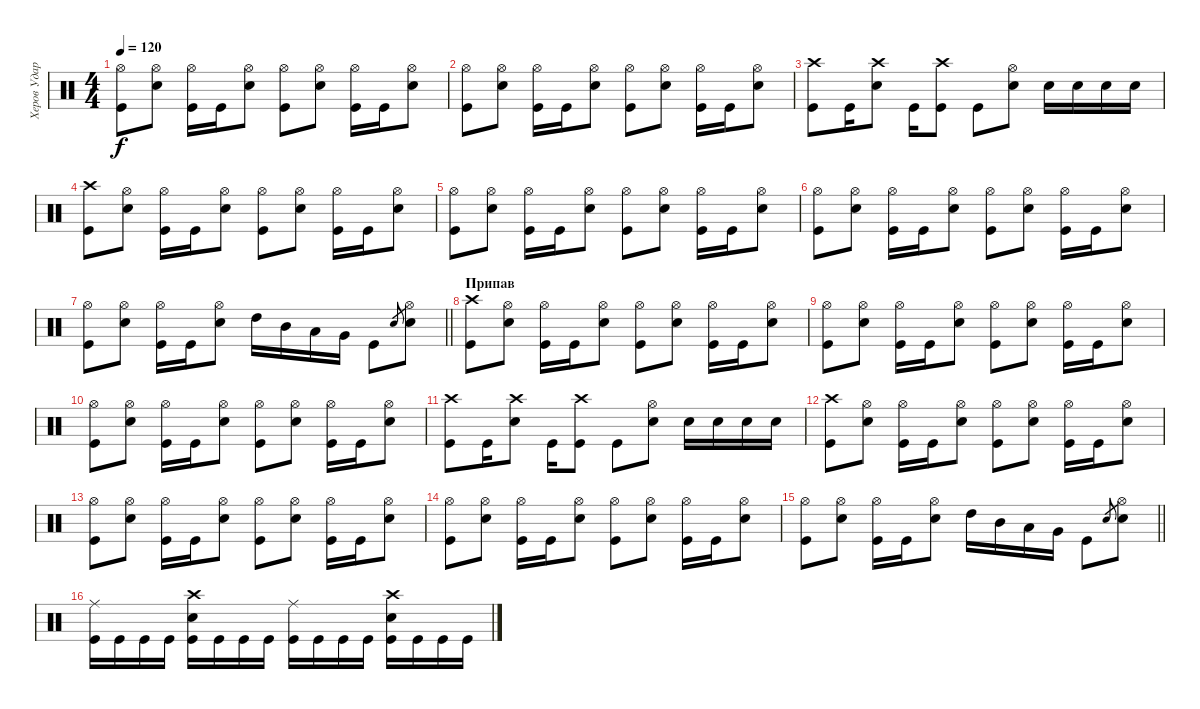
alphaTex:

\track ("Херов Ударник" "Херов Удар") {instrument percussion}
\staff {score}
\articulation defaults
\ts (4 4)
\tempo 120
\clef neutral
\ks c
("Hi-Hat (open)" "Kick (hit)").8{dy f} ("Hi-Hat (open)" "Electric Snare (hit)").8 ("Hi-Hat (open)" "Kick (hit)").16 "Kick (hit)".16 ("Hi-Hat (open)" "Electric Snare (hit)").8 ("Hi-Hat (open)" "Kick (hit)").8 ("Hi-Hat (open)" "Electric Snare (hit)").8 ("Hi-Hat (open)" "Kick (hit)").16 "Kick (hit)".16 ("Hi-Hat (open)" "Electric Snare (hit)").8 |
("Hi-Hat (open)" "Kick (hit)").8 ("Hi-Hat (open)" "Electric Snare (hit)").8 ("Hi-Hat (open)" "Kick (hit)").16 "Kick (hit)".16 ("Hi-Hat (open)" "Electric Snare (hit)").8 ("Hi-Hat (open)" "Kick (hit)").8 ("Hi-Hat (open)" "Electric Snare (hit)").8 ("Hi-Hat (open)" "Kick (hit)").16 "Kick (hit)".16 ("Hi-Hat (open)" "Electric Snare (hit)").8 |
("Crash high (hit)" "Kick (hit)").8 "Kick (hit)".16 ("Crash high (hit)" "Electric Snare (hit)").8 "Kick (hit)".16 ("Crash high (hit)" "Kick (hit)").8 "Kick (hit)".8 ("Hi-Hat (open)" "Electric Snare (hit)").8 "Electric Snare (hit)".16 "Electric Snare (hit)".16 "Electric Snare (hit)".16 "Electric Snare (hit)".16 |
("Crash high (hit)" "Kick (hit)").8 ("Hi-Hat (open)" "Electric Snare (hit)").8 ("Hi-Hat (open)" "Kick (hit)").16 "Kick (hit)".16 ("Hi-Hat (open)" "Electric Snare (hit)").8 ("Hi-Hat (open)" "Kick (hit)").8 ("Hi-Hat (open)" "Electric Snare (hit)").8 ("Hi-Hat (open)" "Kick (hit)").16 "Kick (hit)".16 ("Hi-Hat (open)" "Electric Snare (hit)").8 |
("Hi-Hat (open)" "Kick (hit)").8 ("Hi-Hat (open)" "Electric Snare (hit)").8 ("Hi-Hat (open)" "Kick (hit)").16 "Kick (hit)".16 ("Hi-Hat (open)" "Electric Snare (hit)").8 ("Hi-Hat (open)" "Kick (hit)").8 ("Hi-Hat (open)" "Electric Snare (hit)").8 ("Hi-Hat (open)" "Kick (hit)").16 "Kick (hit)".16 ("Hi-Hat (open)" "Electric Snare (hit)").8 |
("Hi-Hat (open)" "Kick (hit)").8 ("Hi-Hat (open)" "Electric Snare (hit)").8 ("Hi-Hat (open)" "Kick (hit)").16 "Kick (hit)".16 ("Hi-Hat (open)" "Electric Snare (hit)").8 ("Hi-Hat (open)" "Kick (hit)").8 ("Hi-Hat (open)" "Electric Snare (hit)").8 ("Hi-Hat (open)" "Kick (hit)").16 "Kick (hit)".16 ("Hi-Hat (open)" "Electric Snare (hit)").8 |
\barLineRight lightlight
("Hi-Hat (open)" "Kick (hit)").8 ("Hi-Hat (open)" "Electric Snare (hit)").8 ("Hi-Hat (open)" "Kick (hit)").16 "Kick (hit)".16 ("Hi-Hat (open)" "Electric Snare (hit)").8 "High Tom (hit)".16 "Mid Tom (hit)".16 "Low Tom (hit)".16 "Very Low Tom (hit)".16 "Kick (hit)".8 "Electric Snare (hit)".8{gr} ("Hi-Hat (open)" "Electric Snare (hit)").8 |
\section ("" "Припав")
("Crash high (hit)" "Kick (hit)").8 ("Hi-Hat (open)" "Electric Snare (hit)").8 ("Hi-Hat (open)" "Kick (hit)").16 "Kick (hit)".16 ("Hi-Hat (open)" "Electric Snare (hit)").8 ("Hi-Hat (open)" "Kick (hit)").8 ("Hi-Hat (open)" "Electric Snare (hit)").8 ("Hi-Hat (open)" "Kick (hit)").16 "Kick (hit)".16 ("Hi-Hat (open)" "Electric Snare (hit)").8 |
("Hi-Hat (open)" "Kick (hit)").8 ("Hi-Hat (open)" "Electric Snare (hit)").8 ("Hi-Hat (open)" "Kick (hit)").16 "Kick (hit)".16 ("Hi-Hat (open)" "Electric Snare (hit)").8 ("Hi-Hat (open)" "Kick (hit)").8 ("Hi-Hat (open)" "Electric Snare (hit)").8 ("Hi-Hat (open)" "Kick (hit)").16 "Kick (hit)".16 ("Hi-Hat (open)" "Electric Snare (hit)").8 |
("Hi-Hat (open)" "Kick (hit)").8 ("Hi-Hat (open)" "Electric Snare (hit)").8 ("Hi-Hat (open)" "Kick (hit)").16 "Kick (hit)".16 ("Hi-Hat (open)" "Electric Snare (hit)").8 ("Hi-Hat (open)" "Kick (hit)").8 ("Hi-Hat (open)" "Electric Snare (hit)").8 ("Hi-Hat (open)" "Kick (hit)").16 "Kick (hit)".16 ("Hi-Hat (open)" "Electric Snare (hit)").8 |
("Crash high (hit)" "Kick (hit)").8 "Kick (hit)".16 ("Crash high (hit)" "Electric Snare (hit)").8 "Kick (hit)".16 ("Crash high (hit)" "Kick (hit)").8 "Kick (hit)".8 ("Hi-Hat (open)" "Electric Snare (hit)").8 "Electric Snare (hit)".16 "Electric Snare (hit)".16 "Electric Snare (hit)".16 "Electric Snare (hit)".16 |
("Crash high (hit)" "Kick (hit)").8 ("Hi-Hat (open)" "Electric Snare (hit)").8 ("Hi-Hat (open)" "Kick (hit)").16 "Kick (hit)".16 ("Hi-Hat (open)" "Electric Snare (hit)").8 ("Hi-Hat (open)" "Kick (hit)").8 ("Hi-Hat (open)" "Electric Snare (hit)").8 ("Hi-Hat (open)" "Kick (hit)").16 "Kick (hit)".16 ("Hi-Hat (open)" "Electric Snare (hit)").8 |
("Hi-Hat (open)" "Kick (hit)").8 ("Hi-Hat (open)" "Electric Snare (hit)").8 ("Hi-Hat (open)" "Kick (hit)").16 "Kick (hit)".16 ("Hi-Hat (open)" "Electric Snare (hit)").8 ("Hi-Hat (open)" "Kick (hit)").8 ("Hi-Hat (open)" "Electric Snare (hit)").8 ("Hi-Hat (open)" "Kick (hit)").16 "Kick (hit)".16 ("Hi-Hat (open)" "Electric Snare (hit)").8 |
("Hi-Hat (open)" "Kick (hit)").8 ("Hi-Hat (open)" "Electric Snare (hit)").8 ("Hi-Hat (open)" "Kick (hit)").16 "Kick (hit)".16 ("Hi-Hat (open)" "Electric Snare (hit)").8 ("Hi-Hat (open)" "Kick (hit)").8 ("Hi-Hat (open)" "Electric Snare (hit)").8 ("Hi-Hat (open)" "Kick (hit)").16 "Kick (hit)".16 ("Hi-Hat (open)" "Electric Snare (hit)").8 |
\barLineRight lightlight
("Hi-Hat (open)" "Kick (hit)").8 ("Hi-Hat (open)" "Electric Snare (hit)").8 ("Hi-Hat (open)" "Kick (hit)").16 "Kick (hit)".16 ("Hi-Hat (open)" "Electric Snare (hit)").8 "High Tom (hit)".16 "Mid Tom (hit)".16 "Low Tom (hit)".16 "Very Low Tom (hit)".16 "Kick (hit)".8 "Electric Snare (hit)".8{gr} ("Hi-Hat (open)" "Electric Snare (hit)").8 |
("Ride (middle)" "Kick (hit)").16 "Kick (hit)".16 "Kick (hit)".16 "Kick (hit)".16 ("Crash high (hit)" "Electric Snare (hit)" "Kick (hit)").16 "Kick (hit)".16 "Kick (hit)".16 "Kick (hit)".16 ("Ride (middle)" "Kick (hit)").16 "Kick (hit)".16 "Kick (hit)".16 "Kick (hit)".16 ("Crash high (hit)" "Electric Snare (hit)" "Kick (hit)").16 "Kick (hit)".16 "Kick (hit)".16 "Kick (hit)".16
